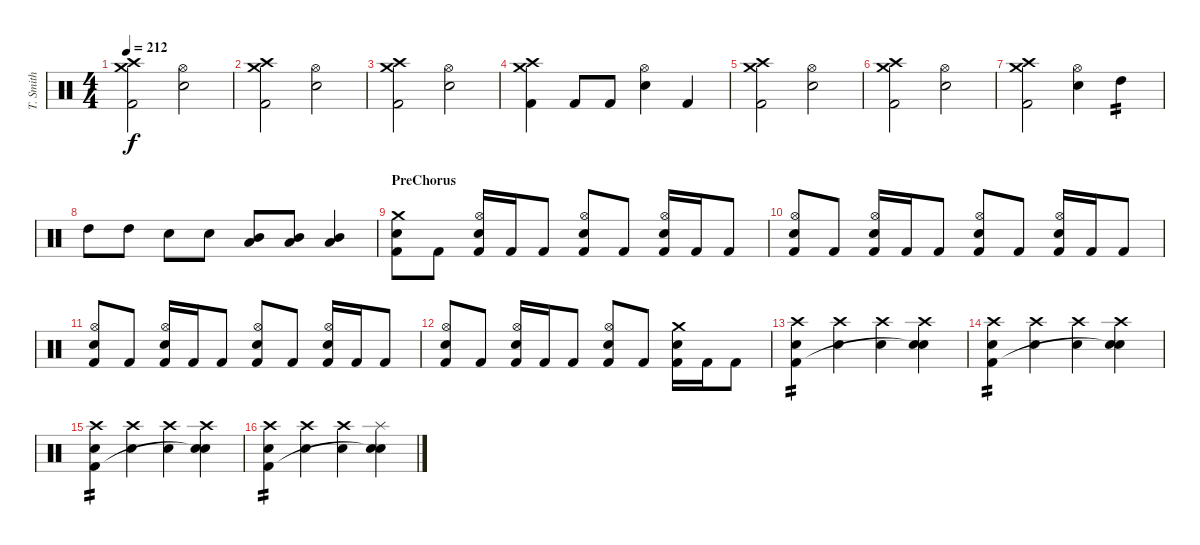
\track ("T. Smith" "T. Smith") {instrument percussion}
\staff {score}
\articulation defaults
\ts (4 4)
\tempo 212
\clef neutral
\ks c
("Crash medium (hit)" "Crash high (hit)" "Kick (hit) 2").2{dy f} ("Hi-Hat (open)" "Electric Snare (hit)").2 |
("Crash medium (hit)" "Crash high (hit)" "Kick (hit) 2").2 ("Hi-Hat (open)" "Electric Snare (hit)").2 |
("Crash medium (hit)" "Crash high (hit)" "Kick (hit) 2").2 ("Hi-Hat (open)" "Electric Snare (hit)").2 |
("Crash medium (hit)" "Crash high (hit)" "Kick (hit) 2").4 "Kick (hit) 2".8 "Kick (hit) 2".8 ("Hi-Hat (open)" "Electric Snare (hit)").4 "Kick (hit) 2".4 |
("Crash medium (hit)" "Crash high (hit)" "Kick (hit) 2").2 ("Hi-Hat (open)" "Electric Snare (hit)").2 |
("Crash medium (hit)" "Crash high (hit)" "Kick (hit) 2").2 ("Hi-Hat (open)" "Electric Snare (hit)").2 |
("Crash medium (hit)" "Crash high (hit)" "Kick (hit) 2").2 ("Hi-Hat (open)" "Electric Snare (hit)").4 "High Tom (hit)".4{tp 2} |
"High Tom (hit)".8 "High Tom (hit)".8 "Electric Snare (hit)".8 "Electric Snare (hit)".8 ("Mid Tom (hit)" "Low Tom (hit)").8 ("Mid Tom (hit)" "Low Tom (hit)").8 ("Mid Tom (hit)" "Low Tom (hit)").4 |
\section ("" "PreChorus")
("Crash medium (hit)" "Electric Snare (hit)" "Kick (hit) 2").8 "Kick (hit) 2".8 ("Hi-Hat (open)" "Electric Snare (hit)" "Kick (hit) 2").16 "Kick (hit) 2".16 "Kick (hit) 2".8 ("Hi-Hat (open)" "Electric Snare (hit)" "Kick (hit) 2").8 "Kick (hit) 2".8 ("Hi-Hat (open)" "Electric Snare (hit)" "Kick (hit) 2").16 "Kick (hit) 2".16 "Kick (hit) 2".8 |
("Hi-Hat (open)" "Electric Snare (hit)" "Kick (hit) 2").8 "Kick (hit) 2".8 ("Hi-Hat (open)" "Electric Snare (hit)" "Kick (hit) 2").16 "Kick (hit) 2".16 "Kick (hit) 2".8 ("Hi-Hat (open)" "Electric Snare (hit)" "Kick (hit) 2").8 "Kick (hit) 2".8 ("Hi-Hat (open)" "Electric Snare (hit)" "Kick (hit) 2").16 "Kick (hit) 2".16 "Kick (hit) 2".8 |
("Hi-Hat (open)" "Electric Snare (hit)" "Kick (hit) 2").8 "Kick (hit) 2".8 ("Hi-Hat (open)" "Electric Snare (hit)" "Kick (hit) 2").16 "Kick (hit) 2".16 "Kick (hit) 2".8 ("Hi-Hat (open)" "Electric Snare (hit)" "Kick (hit) 2").8 "Kick (hit) 2".8 ("Hi-Hat (open)" "Electric Snare (hit)" "Kick (hit) 2").16 "Kick (hit) 2".16 "Kick (hit) 2".8 |
("Hi-Hat (open)" "Electric Snare (hit)" "Kick (hit) 2").8 "Kick (hit) 2".8 ("Hi-Hat (open)" "Electric Snare (hit)" "Kick (hit) 2").16 "Kick (hit) 2".16 "Kick (hit) 2".8 ("Hi-Hat (open)" "Electric Snare (hit)" "Kick (hit) 2").8 "Kick (hit) 2".8 ("Crash medium (hit)" "Electric Snare (hit)" "Kick (hit) 2").16 "Kick (hit) 2".16 "Kick (hit) 2".8 |
("Crash high (hit)" "Electric Snare (hit)" "Kick (hit) 2").4{tp 2} ("Crash high (hit)" "Electric Snare (hit)").4 ("Crash high (hit)" "Electric Snare (hit)").4 ("Crash high (hit)" "Electric Snare (hit)" "Snare (hit)"{t}).4 |
("Crash high (hit)" "Electric Snare (hit)" "Kick (hit) 2").4{tp 2} ("Crash high (hit)" "Electric Snare (hit)").4 ("Crash high (hit)" "Electric Snare (hit)").4 ("Crash high (hit)" "Electric Snare (hit)" "Snare (hit)"{t}).4 |
("Crash high (hit)" "Electric Snare (hit)" "Kick (hit) 2").4{tp 2} ("Crash high (hit)" "Electric Snare (hit)").4 ("Crash high (hit)" "Electric Snare (hit)").4 ("Crash high (hit)" "Electric Snare (hit)" "Snare (hit)"{t}).4 |
("Crash high (hit)" "Electric Snare (hit)" "Kick (hit) 2").4{tp 2} ("Crash high (hit)" "Electric Snare (hit)").4 ("Crash high (hit)" "Electric Snare (hit)").4 ("Splash (hit)" "Electric Snare (hit)" "Snare (hit)"{t}).4
